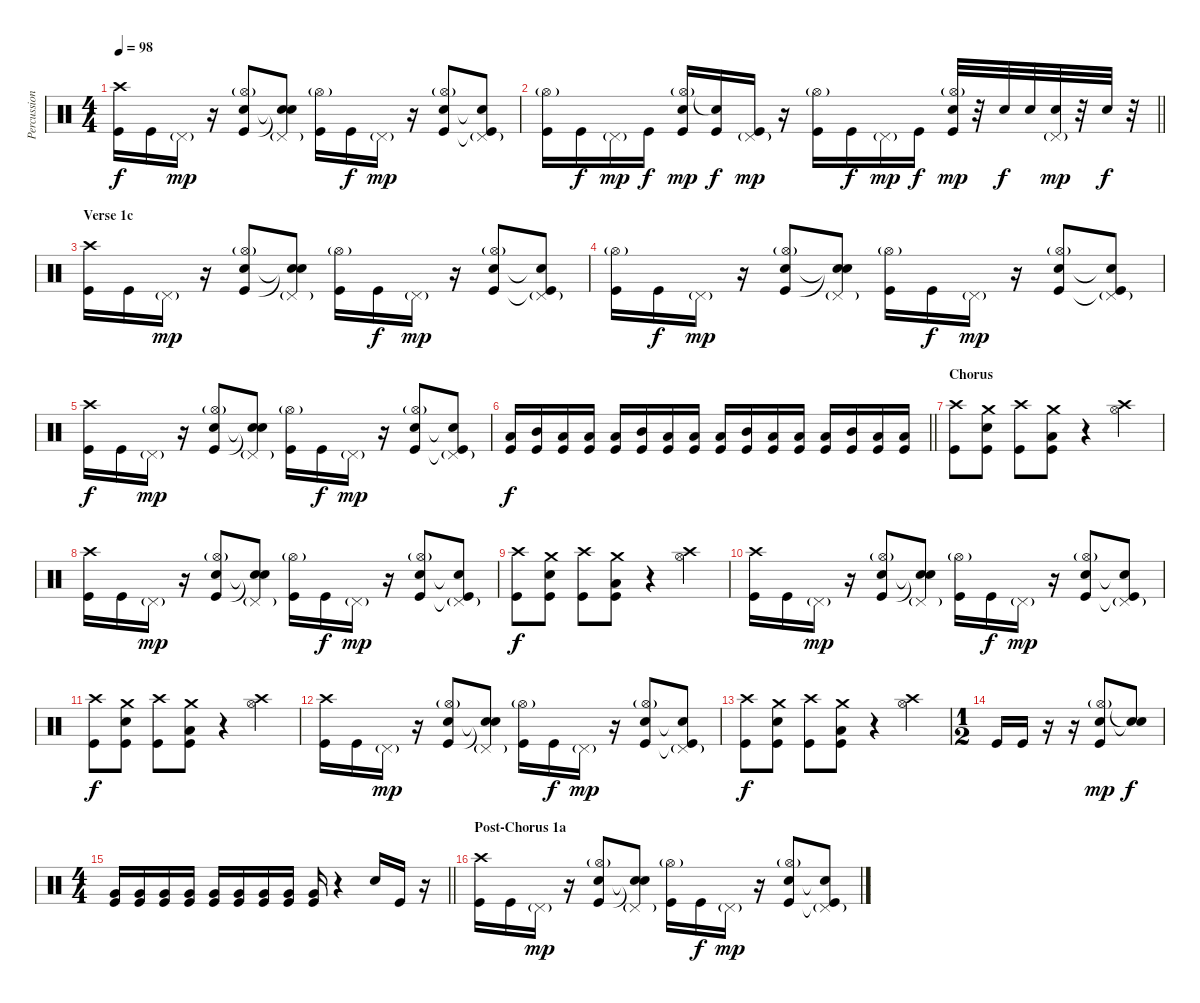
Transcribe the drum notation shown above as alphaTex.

\track ("Percussion" "Percussion") {instrument percussion}
\staff {score}
\articulation defaults
\ts (4 4)
\tempo 98
\clef neutral
\ks c
("Crash high (hit)" "Kick (hit)").16{dy f} "Kick (hit)".16 "Pedal Hi-Hat (hit)"{g}.16{dy mp} r.16 ("Hi-Hat (open)"{g} "Snare (hit) 2" "Kick (hit)").8 ("Pedal Hi-Hat (hit)"{g} "Snare (hit)"{t} "Snare (hit)"{t}).8 ("Hi-Hat (open)"{g} "Kick (hit)").16 "Kick (hit)".16{dy f} "Pedal Hi-Hat (hit)"{g}.16{dy mp} r.16 ("Hi-Hat (open)"{g} "Snare (hit) 2" "Kick (hit)").8 ("Pedal Hi-Hat (hit)"{g} "Snare (hit)"{t} "Kick (hit)"{t}).8 |
\barLineRight lightlight
("Hi-Hat (open)"{g} "Kick (hit)").16 "Kick (hit)".16{dy f} "Pedal Hi-Hat (hit)"{g}.16{dy mp} "Kick (hit)".16{dy f} ("Hi-Hat (open)"{g} "Snare (hit) 2" "Kick (hit)").16{dy mp} ("Snare (hit)"{t} "Kick (hit)").16{dy f} ("Pedal Hi-Hat (hit)"{g} "Kick (hit)").16{dy mp} r.16 ("Hi-Hat (open)"{g} "Kick (hit)").16 "Kick (hit)".16{dy f} "Pedal Hi-Hat (hit)"{g}.16{dy mp} "Kick (hit)".16{dy f} ("Hi-Hat (open)"{g} "Snare (hit) 2" "Kick (hit)").32{dy mp} r.32 "Snare (hit) 2".32{dy f} "Snare (hit) 2".32 ("Pedal Hi-Hat (hit)"{g} "Snare (hit) 2").32{dy mp} r.32 "Snare (hit) 2".32{dy f} r.32 |
\section ("" "Verse 1c")
("Crash high (hit)" "Kick (hit)").16 "Kick (hit)".16 "Pedal Hi-Hat (hit)"{g}.16{dy mp} r.16 ("Hi-Hat (open)"{g} "Snare (hit) 2" "Kick (hit)").8 ("Pedal Hi-Hat (hit)"{g} "Snare (hit)"{t} "Snare (hit)"{t}).8 ("Hi-Hat (open)"{g} "Kick (hit)").16 "Kick (hit)".16{dy f} "Pedal Hi-Hat (hit)"{g}.16{dy mp} r.16 ("Hi-Hat (open)"{g} "Snare (hit) 2" "Kick (hit)").8 ("Pedal Hi-Hat (hit)"{g} "Snare (hit)"{t} "Kick (hit)"{t}).8 |
("Hi-Hat (open)"{g} "Kick (hit)").16 "Kick (hit)".16{dy f} "Pedal Hi-Hat (hit)"{g}.16{dy mp} r.16 ("Hi-Hat (open)"{g} "Snare (hit) 2" "Kick (hit)").8 ("Pedal Hi-Hat (hit)"{g} "Snare (hit)"{t} "Snare (hit)"{t}).8 ("Hi-Hat (open)"{g} "Kick (hit)").16 "Kick (hit)".16{dy f} "Pedal Hi-Hat (hit)"{g}.16{dy mp} r.16 ("Hi-Hat (open)"{g} "Snare (hit) 2" "Kick (hit)").8 ("Pedal Hi-Hat (hit)"{g} "Snare (hit)"{t} "Kick (hit)"{t}).8 |
("Crash high (hit)" "Kick (hit)").16{dy f} "Kick (hit)".16 "Pedal Hi-Hat (hit)"{g}.16{dy mp} r.16 ("Hi-Hat (open)"{g} "Snare (hit) 2" "Kick (hit)").8 ("Pedal Hi-Hat (hit)"{g} "Snare (hit)"{t} "Snare (hit)"{t}).8 ("Hi-Hat (open)"{g} "Kick (hit)").16 "Kick (hit)".16{dy f} "Pedal Hi-Hat (hit)"{g}.16{dy mp} r.16 ("Hi-Hat (open)"{g} "Snare (hit) 2" "Kick (hit)").8 ("Pedal Hi-Hat (hit)"{g} "Snare (hit)"{t} "Kick (hit)"{t}).8 |
\barLineRight lightlight
("Low Tom (hit)" "Kick (hit)").16{dy f} ("Mid Tom (hit)" "Kick (hit)").16 ("Low Tom (hit)" "Kick (hit)").16 ("Low Tom (hit)" "Kick (hit)").16 ("Low Tom (hit)" "Kick (hit)").16 ("Mid Tom (hit)" "Kick (hit)").16 ("Low Tom (hit)" "Kick (hit)").16 ("Low Tom (hit)" "Kick (hit)").16 ("Low Tom (hit)" "Kick (hit)").16 ("Mid Tom (hit)" "Kick (hit)").16 ("Low Tom (hit)" "Kick (hit)").16 ("Low Tom (hit)" "Kick (hit)").16 ("Low Tom (hit)" "Kick (hit)").16 ("Mid Tom (hit)" "Kick (hit)").16 ("Low Tom (hit)" "Kick (hit)").16 ("Low Tom (hit)" "Kick (hit)").16 |
\section ("" "Chorus")
("Crash high (hit)" "Kick (hit)").8 ("Crash medium (hit)" "Snare (hit) 2" "Kick (hit)").8 ("Crash high (hit)" "Kick (hit)").8 ("Crash medium (hit)" "Low Floor Tom (hit)" "Kick (hit)").8 r.4 ("Crash high (hit)" "Hi-Hat (open)").4 |
("Crash high (hit)" "Kick (hit)").16 "Kick (hit)".16 "Pedal Hi-Hat (hit)"{g}.16{dy mp} r.16 ("Hi-Hat (open)"{g} "Snare (hit) 2" "Kick (hit)").8 ("Pedal Hi-Hat (hit)"{g} "Snare (hit)"{t} "Snare (hit)"{t}).8 ("Hi-Hat (open)"{g} "Kick (hit)").16 "Kick (hit)".16{dy f} "Pedal Hi-Hat (hit)"{g}.16{dy mp} r.16 ("Hi-Hat (open)"{g} "Snare (hit) 2" "Kick (hit)").8 ("Pedal Hi-Hat (hit)"{g} "Snare (hit)"{t} "Kick (hit)"{t}).8 |
("Crash high (hit)" "Kick (hit)").8{dy f} ("Crash medium (hit)" "Snare (hit) 2" "Kick (hit)").8 ("Crash high (hit)" "Kick (hit)").8 ("Crash medium (hit)" "Low Floor Tom (hit)" "Kick (hit)").8 r.4 ("Crash high (hit)" "Hi-Hat (open)").4 |
("Crash high (hit)" "Kick (hit)").16 "Kick (hit)".16 "Pedal Hi-Hat (hit)"{g}.16{dy mp} r.16 ("Hi-Hat (open)"{g} "Snare (hit) 2" "Kick (hit)").8 ("Pedal Hi-Hat (hit)"{g} "Snare (hit)"{t} "Snare (hit)"{t}).8 ("Hi-Hat (open)"{g} "Kick (hit)").16 "Kick (hit)".16{dy f} "Pedal Hi-Hat (hit)"{g}.16{dy mp} r.16 ("Hi-Hat (open)"{g} "Snare (hit) 2" "Kick (hit)").8 ("Pedal Hi-Hat (hit)"{g} "Snare (hit)"{t} "Kick (hit)"{t}).8 |
("Crash high (hit)" "Kick (hit)").8{dy f} ("Crash medium (hit)" "Snare (hit) 2" "Kick (hit)").8 ("Crash high (hit)" "Kick (hit)").8 ("Crash medium (hit)" "Low Floor Tom (hit)" "Kick (hit)").8 r.4 ("Crash high (hit)" "Hi-Hat (open)").4 |
("Crash high (hit)" "Kick (hit)").16 "Kick (hit)".16 "Pedal Hi-Hat (hit)"{g}.16{dy mp} r.16 ("Hi-Hat (open)"{g} "Snare (hit) 2" "Kick (hit)").8 ("Pedal Hi-Hat (hit)"{g} "Snare (hit)"{t} "Snare (hit)"{t}).8 ("Hi-Hat (open)"{g} "Kick (hit)").16 "Kick (hit)".16{dy f} "Pedal Hi-Hat (hit)"{g}.16{dy mp} r.16 ("Hi-Hat (open)"{g} "Snare (hit) 2" "Kick (hit)").8 ("Pedal Hi-Hat (hit)"{g} "Snare (hit)"{t} "Kick (hit)"{t}).8 |
("Crash high (hit)" "Kick (hit)").8{dy f} ("Crash medium (hit)" "Snare (hit) 2" "Kick (hit)").8 ("Crash high (hit)" "Kick (hit)").8 ("Crash medium (hit)" "Low Floor Tom (hit)" "Kick (hit)").8 r.4 ("Crash high (hit)" "Hi-Hat (open)").4 |
\ts (1 2)
"Kick (hit)".16 "Kick (hit)".16 r.16 r.16 ("Hi-Hat (open)"{g} "Snare (hit) 2" "Kick (hit)").8{dy mp} ("Snare (hit)"{t} "Snare (hit)"{t}).8{dy f} |
\ts (4 4)
\barLineRight lightlight
("Very Low Tom (hit)" "Kick (hit)").16 ("Very Low Tom (hit)" "Kick (hit)").16 ("Very Low Tom (hit)" "Kick (hit)").16 ("Very Low Tom (hit)" "Kick (hit)").16 ("Very Low Tom (hit)" "Kick (hit)").16 ("Very Low Tom (hit)" "Kick (hit)").16 ("Very Low Tom (hit)" "Kick (hit)").16 ("Very Low Tom (hit)" "Kick (hit)").16 ("Very Low Tom (hit)" "Kick (hit)").16 r.4 "Snare (hit) 2".16 "Kick (hit)".16 r.16 |
\section ("" "Post-Chorus 1a")
("Crash high (hit)" "Kick (hit)").16 "Kick (hit)".16 "Pedal Hi-Hat (hit)"{g}.16{dy mp} r.16 ("Hi-Hat (open)"{g} "Snare (hit) 2" "Kick (hit)").8 ("Pedal Hi-Hat (hit)"{g} "Snare (hit)"{t} "Snare (hit)"{t}).8 ("Hi-Hat (open)"{g} "Kick (hit)").16 "Kick (hit)".16{dy f} "Pedal Hi-Hat (hit)"{g}.16{dy mp} r.16 ("Hi-Hat (open)"{g} "Snare (hit) 2" "Kick (hit)").8 ("Pedal Hi-Hat (hit)"{g} "Snare (hit)"{t} "Kick (hit)"{t}).8
